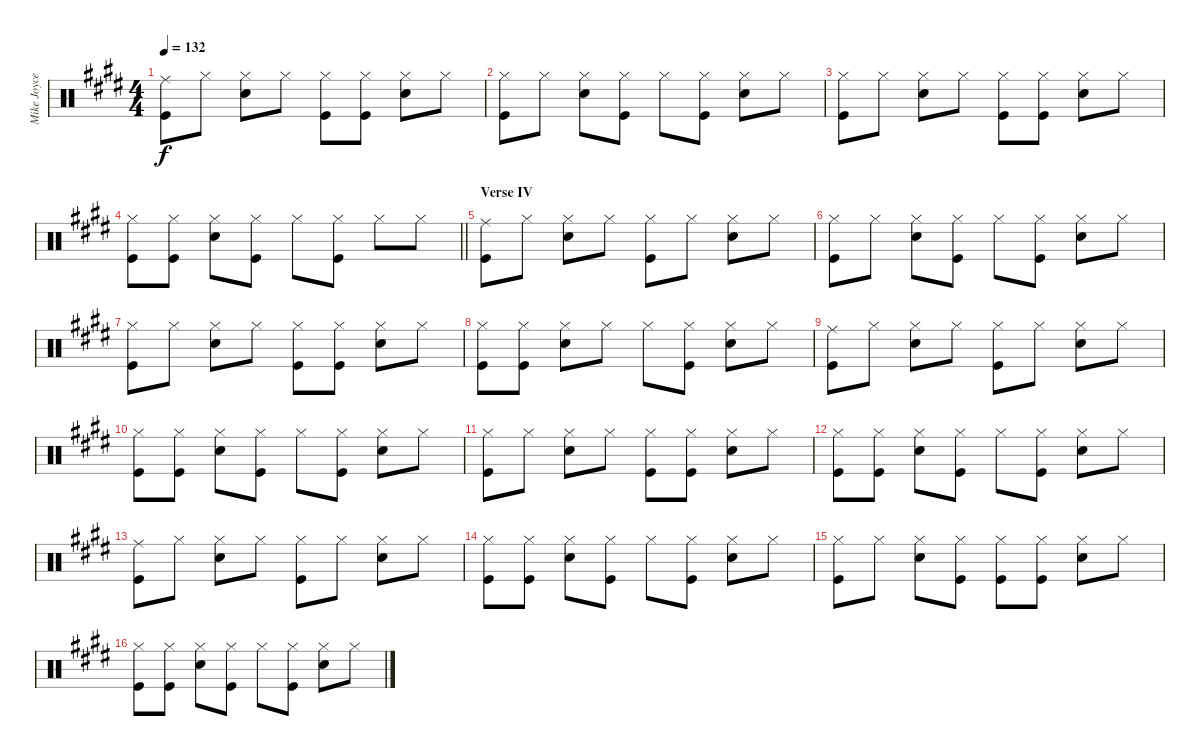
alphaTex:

\track ("Mike Joyce's drums" "Mike Joyce") {instrument percussion}
\staff {score}
\articulation defaults
\ts (4 4)
\tempo 132
\clef neutral
\ks e
("Kick (hit)" "Ride (middle)").8{dy f} "Hi-Hat (closed)".8 ("Hi-Hat (closed)" "Snare (hit) 2").8 "Hi-Hat (closed)".8 ("Hi-Hat (closed)" "Kick (hit)").8 ("Kick (hit)" "Hi-Hat (closed)").8 ("Hi-Hat (closed)" "Snare (hit) 2").8 "Hi-Hat (closed)".8 |
("Kick (hit)" "Hi-Hat (closed)").8 "Hi-Hat (closed)".8 ("Hi-Hat (closed)" "Snare (hit) 2").8 ("Kick (hit)" "Hi-Hat (closed)").8 "Hi-Hat (closed)".8 ("Kick (hit)" "Hi-Hat (closed)").8 ("Hi-Hat (closed)" "Snare (hit) 2").8 "Hi-Hat (closed)".8 |
("Kick (hit)" "Hi-Hat (closed)").8 "Hi-Hat (closed)".8 ("Hi-Hat (closed)" "Snare (hit) 2").8 "Hi-Hat (closed)".8 ("Kick (hit)" "Hi-Hat (closed)").8 ("Kick (hit)" "Hi-Hat (closed)").8 ("Snare (hit) 2" "Hi-Hat (closed)").8 "Hi-Hat (closed)".8 |
\barLineRight lightlight
("Kick (hit)" "Hi-Hat (closed)").8 ("Kick (hit)" "Hi-Hat (closed)").8 ("Snare (hit) 2" "Hi-Hat (closed)").8 ("Kick (hit)" "Hi-Hat (closed)").8 "Hi-Hat (closed)".8 ("Hi-Hat (closed)" "Kick (hit)").8 "Hi-Hat (closed)".8 "Hi-Hat (closed)".8 |
\section ("" "Verse IV")
("Kick (hit)" "Ride (middle)").8 "Hi-Hat (closed)".8 ("Snare (hit) 2" "Hi-Hat (closed)").8 "Hi-Hat (closed)".8 ("Hi-Hat (closed)" "Kick (hit)").8 "Hi-Hat (closed)".8 ("Hi-Hat (closed)" "Snare (hit) 2").8 "Hi-Hat (closed)".8 |
("Kick (hit)" "Hi-Hat (closed)").8 "Hi-Hat (closed)".8 ("Hi-Hat (closed)" "Snare (hit) 2").8 ("Kick (hit)" "Hi-Hat (closed)").8 "Hi-Hat (closed)".8 ("Kick (hit)" "Hi-Hat (closed)").8 ("Hi-Hat (closed)" "Snare (hit) 2").8 "Hi-Hat (closed)".8 |
("Kick (hit)" "Hi-Hat (closed)").8 "Hi-Hat (closed)".8 ("Hi-Hat (closed)" "Snare (hit) 2").8 "Hi-Hat (closed)".8 ("Kick (hit)" "Hi-Hat (closed)").8 ("Kick (hit)" "Hi-Hat (closed)").8 ("Snare (hit) 2" "Hi-Hat (closed)").8 "Hi-Hat (closed)".8 |
("Kick (hit)" "Hi-Hat (closed)").8 ("Kick (hit)" "Hi-Hat (closed)").8 ("Hi-Hat (closed)" "Snare (hit) 2").8 "Hi-Hat (closed)".8 "Hi-Hat (closed)".8 ("Hi-Hat (closed)" "Kick (hit)").8 ("Snare (hit) 2" "Hi-Hat (closed)").8 "Hi-Hat (closed)".8 |
("Kick (hit)" "Ride (middle)").8 "Hi-Hat (closed)".8 ("Hi-Hat (closed)" "Snare (hit) 2").8 "Hi-Hat (closed)".8 ("Kick (hit)" "Hi-Hat (closed)").8 "Hi-Hat (closed)".8 ("Snare (hit) 2" "Hi-Hat (closed)").8 "Hi-Hat (closed)".8 |
("Hi-Hat (closed)" "Kick (hit)").8 ("Hi-Hat (closed)" "Kick (hit)").8 ("Snare (hit) 2" "Hi-Hat (closed)").8 ("Kick (hit)" "Hi-Hat (closed)").8 "Hi-Hat (closed)".8 ("Hi-Hat (closed)" "Kick (hit)").8 ("Snare (hit) 2" "Hi-Hat (closed)").8 "Hi-Hat (closed)".8 |
("Kick (hit)" "Hi-Hat (closed)").8 "Hi-Hat (closed)".8 ("Hi-Hat (closed)" "Snare (hit) 2").8 "Hi-Hat (closed)".8 ("Hi-Hat (closed)" "Kick (hit)").8 ("Hi-Hat (closed)" "Kick (hit)").8 ("Snare (hit) 2" "Hi-Hat (closed)").8 "Hi-Hat (closed)".8 |
("Kick (hit)" "Hi-Hat (closed)").8 ("Kick (hit)" "Hi-Hat (closed)").8 ("Hi-Hat (closed)" "Snare (hit) 2").8 ("Kick (hit)" "Hi-Hat (closed)").8 "Hi-Hat (closed)".8 ("Hi-Hat (closed)" "Kick (hit)").8 ("Snare (hit) 2" "Hi-Hat (closed)").8 "Hi-Hat (closed)".8 |
("Kick (hit)" "Ride (middle)").8 "Hi-Hat (closed)".8 ("Hi-Hat (closed)" "Snare (hit) 2").8 "Hi-Hat (closed)".8 ("Hi-Hat (closed)" "Kick (hit)").8 "Hi-Hat (closed)".8 ("Hi-Hat (closed)" "Snare (hit) 2").8 "Hi-Hat (closed)".8 |
("Hi-Hat (closed)" "Kick (hit)").8 ("Hi-Hat (closed)" "Kick (hit)").8 ("Snare (hit) 2" "Hi-Hat (closed)").8 ("Hi-Hat (closed)" "Kick (hit)").8 "Hi-Hat (closed)".8 ("Kick (hit)" "Hi-Hat (closed)").8 ("Snare (hit) 2" "Hi-Hat (closed)").8 "Hi-Hat (closed)".8 |
("Kick (hit)" "Hi-Hat (closed)").8 "Hi-Hat (closed)".8 ("Hi-Hat (closed)" "Snare (hit) 2").8 ("Kick (hit)" "Hi-Hat (closed)").8 ("Hi-Hat (closed)" "Kick (hit)").8 ("Hi-Hat (closed)" "Kick (hit)").8 ("Snare (hit) 2" "Hi-Hat (closed)").8 "Hi-Hat (closed)".8 |
("Kick (hit)" "Hi-Hat (closed)").8 ("Kick (hit)" "Hi-Hat (closed)").8 ("Snare (hit) 2" "Hi-Hat (closed)").8 ("Kick (hit)" "Hi-Hat (closed)").8 "Hi-Hat (closed)".8 ("Hi-Hat (closed)" "Kick (hit)").8 ("Snare (hit) 2" "Hi-Hat (closed)").8 "Hi-Hat (closed)".8
